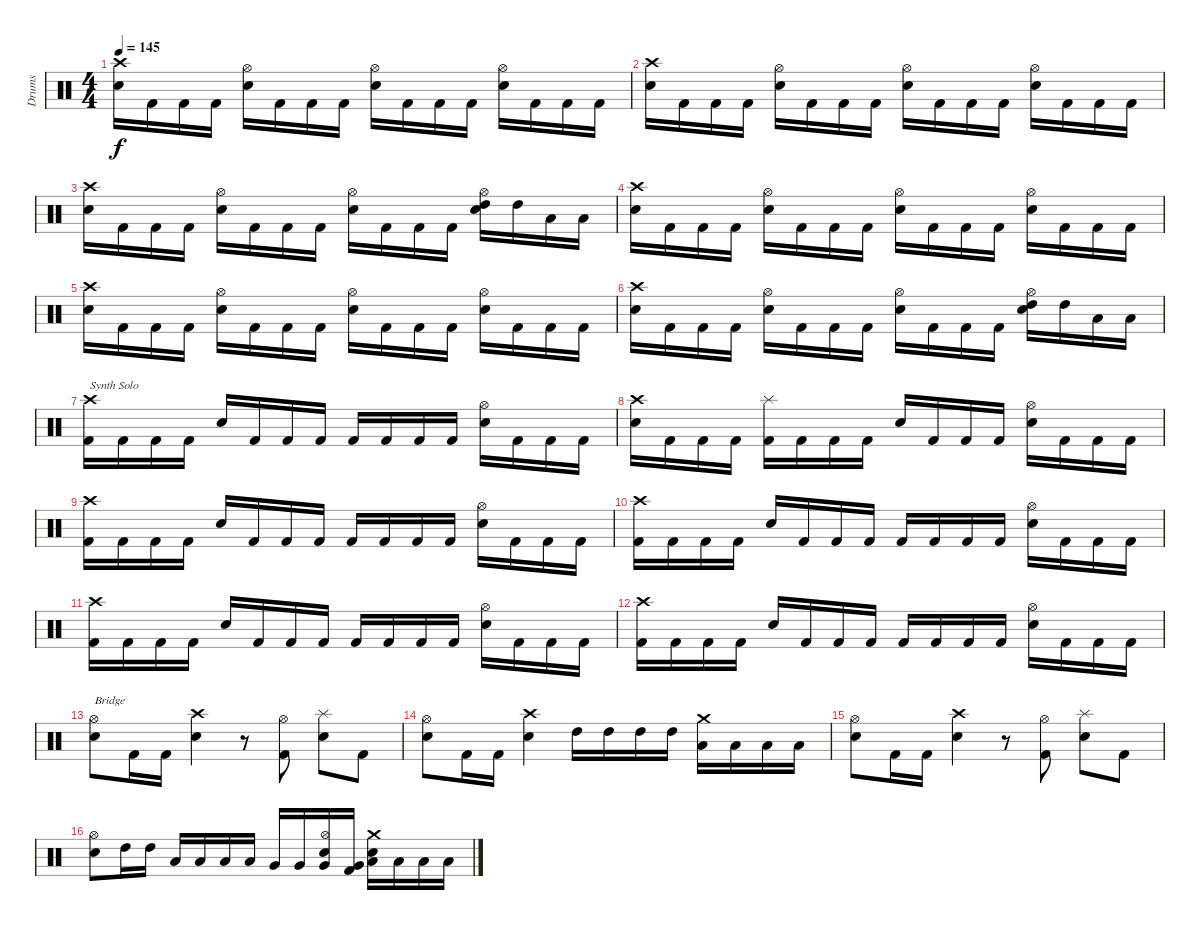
\track ("Drums" "Drums") {instrument percussion}
\staff {score}
\articulation defaults
\ts (4 4)
\tempo 145
\clef neutral
\ks c
("Crash high (hit)" "Snare (hit) 2").16{dy f} "Kick (hit) 2".16 "Kick (hit) 2".16 "Kick (hit) 2".16 ("Hi-Hat (open)" "Snare (hit) 2").16 "Kick (hit) 2".16 "Kick (hit) 2".16 "Kick (hit) 2".16 ("Hi-Hat (open)" "Snare (hit) 2").16 "Kick (hit) 2".16 "Kick (hit) 2".16 "Kick (hit) 2".16 ("Hi-Hat (open)" "Snare (hit) 2").16 "Kick (hit) 2".16 "Kick (hit) 2".16 "Kick (hit) 2".16 |
("Crash high (hit)" "Snare (hit) 2").16 "Kick (hit) 2".16 "Kick (hit) 2".16 "Kick (hit) 2".16 ("Hi-Hat (open)" "Snare (hit) 2").16 "Kick (hit) 2".16 "Kick (hit) 2".16 "Kick (hit) 2".16 ("Hi-Hat (open)" "Snare (hit) 2").16 "Kick (hit) 2".16 "Kick (hit) 2".16 "Kick (hit) 2".16 ("Hi-Hat (open)" "Snare (hit) 2").16 "Kick (hit) 2".16 "Kick (hit) 2".16 "Kick (hit) 2".16 |
("Crash high (hit)" "Snare (hit) 2").16 "Kick (hit) 2".16 "Kick (hit) 2".16 "Kick (hit) 2".16 ("Hi-Hat (open)" "Snare (hit) 2").16 "Kick (hit) 2".16 "Kick (hit) 2".16 "Kick (hit) 2".16 ("Hi-Hat (open)" "Snare (hit) 2").16 "Kick (hit) 2".16 "Kick (hit) 2".16 "Kick (hit) 2".16 ("High Tom (hit)" "Hi-Hat (open)" "Snare (hit) 2").16 "High Tom (hit)".16 "Low Tom (hit)".16 "Low Tom (hit)".16 |
("Crash high (hit)" "Snare (hit) 2").16 "Kick (hit) 2".16 "Kick (hit) 2".16 "Kick (hit) 2".16 ("Hi-Hat (open)" "Snare (hit) 2").16 "Kick (hit) 2".16 "Kick (hit) 2".16 "Kick (hit) 2".16 ("Hi-Hat (open)" "Snare (hit) 2").16 "Kick (hit) 2".16 "Kick (hit) 2".16 "Kick (hit) 2".16 ("Hi-Hat (open)" "Snare (hit) 2").16 "Kick (hit) 2".16 "Kick (hit) 2".16 "Kick (hit) 2".16 |
("Crash high (hit)" "Snare (hit) 2").16 "Kick (hit) 2".16 "Kick (hit) 2".16 "Kick (hit) 2".16 ("Hi-Hat (open)" "Snare (hit) 2").16 "Kick (hit) 2".16 "Kick (hit) 2".16 "Kick (hit) 2".16 ("Hi-Hat (open)" "Snare (hit) 2").16 "Kick (hit) 2".16 "Kick (hit) 2".16 "Kick (hit) 2".16 ("Hi-Hat (open)" "Snare (hit) 2").16 "Kick (hit) 2".16 "Kick (hit) 2".16 "Kick (hit) 2".16 |
("Crash high (hit)" "Snare (hit) 2").16 "Kick (hit) 2".16 "Kick (hit) 2".16 "Kick (hit) 2".16 ("Hi-Hat (open)" "Snare (hit) 2").16 "Kick (hit) 2".16 "Kick (hit) 2".16 "Kick (hit) 2".16 ("Hi-Hat (open)" "Snare (hit) 2").16 "Kick (hit) 2".16 "Kick (hit) 2".16 "Kick (hit) 2".16 ("High Tom (hit)" "Hi-Hat (open)" "Snare (hit) 2").16 "High Tom (hit)".16 "Low Tom (hit)".16 "Low Tom (hit)".16 |
("Crash high (hit)" "Kick (hit) 2").16{txt "Synth Solo"} "Kick (hit) 2".16 "Kick (hit) 2".16 "Kick (hit) 2".16 "Snare (hit) 2".16 "Kick (hit) 2".16 "Kick (hit) 2".16 "Kick (hit) 2".16 "Kick (hit) 2".16 "Kick (hit) 2".16 "Kick (hit) 2".16 "Kick (hit) 2".16 ("Hi-Hat (open)" "Snare (hit) 2").16 "Kick (hit) 2".16 "Kick (hit) 2".16 "Kick (hit) 2".16 |
("Crash high (hit)" "Snare (hit) 2").16 "Kick (hit) 2".16 "Kick (hit) 2".16 "Kick (hit) 2".16 ("Splash (hit)" "Kick (hit) 2").16 "Kick (hit) 2".16 "Kick (hit) 2".16 "Kick (hit) 2".16 "Snare (hit) 2".16 "Kick (hit) 2".16 "Kick (hit) 2".16 "Kick (hit) 2".16 ("Hi-Hat (open)" "Snare (hit) 2").16 "Kick (hit) 2".16 "Kick (hit) 2".16 "Kick (hit) 2".16 |
("Crash high (hit)" "Kick (hit) 2").16 "Kick (hit) 2".16 "Kick (hit) 2".16 "Kick (hit) 2".16 "Snare (hit) 2".16 "Kick (hit) 2".16 "Kick (hit) 2".16 "Kick (hit) 2".16 "Kick (hit) 2".16 "Kick (hit) 2".16 "Kick (hit) 2".16 "Kick (hit) 2".16 ("Hi-Hat (open)" "Snare (hit) 2").16 "Kick (hit) 2".16 "Kick (hit) 2".16 "Kick (hit) 2".16 |
("Crash high (hit)" "Kick (hit) 2").16 "Kick (hit) 2".16 "Kick (hit) 2".16 "Kick (hit) 2".16 "Snare (hit) 2".16 "Kick (hit) 2".16 "Kick (hit) 2".16 "Kick (hit) 2".16 "Kick (hit) 2".16 "Kick (hit) 2".16 "Kick (hit) 2".16 "Kick (hit) 2".16 ("Hi-Hat (open)" "Snare (hit) 2").16 "Kick (hit) 2".16 "Kick (hit) 2".16 "Kick (hit) 2".16 |
("Crash high (hit)" "Kick (hit) 2").16 "Kick (hit) 2".16 "Kick (hit) 2".16 "Kick (hit) 2".16 "Snare (hit) 2".16 "Kick (hit) 2".16 "Kick (hit) 2".16 "Kick (hit) 2".16 "Kick (hit) 2".16 "Kick (hit) 2".16 "Kick (hit) 2".16 "Kick (hit) 2".16 ("Hi-Hat (open)" "Snare (hit) 2").16 "Kick (hit) 2".16 "Kick (hit) 2".16 "Kick (hit) 2".16 |
("Crash high (hit)" "Kick (hit) 2").16 "Kick (hit) 2".16 "Kick (hit) 2".16 "Kick (hit) 2".16 "Snare (hit) 2".16 "Kick (hit) 2".16 "Kick (hit) 2".16 "Kick (hit) 2".16 "Kick (hit) 2".16 "Kick (hit) 2".16 "Kick (hit) 2".16 "Kick (hit) 2".16 ("Hi-Hat (open)" "Snare (hit) 2").16 "Kick (hit) 2".16 "Kick (hit) 2".16 "Kick (hit) 2".16 |
("Hi-Hat (open)" "Snare (hit) 2").8{txt "Bridge"} "Kick (hit) 2".16 "Kick (hit) 2".16 ("Crash high (hit)" "Snare (hit) 2").4 r.8 ("Hi-Hat (open)" "Kick (hit) 2").8 ("Splash (hit)" "Snare (hit) 2").8 "Kick (hit) 2".8 |
("Hi-Hat (open)" "Snare (hit) 2").8 "Kick (hit) 2".16 "Kick (hit) 2".16 ("Crash high (hit)" "Snare (hit) 2").4 "High Tom (hit)".16 "High Tom (hit)".16 "High Tom (hit)".16 "High Tom (hit)".16 ("Low Tom (hit)" "Crash medium (hit)").16 "Low Tom (hit)".16 "Low Tom (hit)".16 "Low Tom (hit)".16 |
("Hi-Hat (open)" "Snare (hit) 2").8 "Kick (hit) 2".16 "Kick (hit) 2".16 ("Crash high (hit)" "Snare (hit) 2").4 r.8 ("Hi-Hat (open)" "Kick (hit) 2").8 ("Splash (hit)" "Snare (hit) 2").8 "Kick (hit) 2".8 |
("Hi-Hat (open)" "Snare (hit) 2").8 "High Tom (hit)".16 "High Tom (hit)".16 "Low Tom (hit)".16 "Low Tom (hit)".16 "Low Tom (hit)".16 "Low Tom (hit)".16 "Very Low Tom (hit)".16 "Very Low Tom (hit)".16 ("Very Low Tom (hit)" "Hi-Hat (open)" "Snare (hit) 2").16 ("Very Low Tom (hit)" "Kick (hit) 2").16 ("Low Floor Tom (hit)" "Crash medium (hit)" "Snare (hit) 2").16 "Low Floor Tom (hit)".16 "Low Floor Tom (hit)".16 "Low Floor Tom (hit)".16
